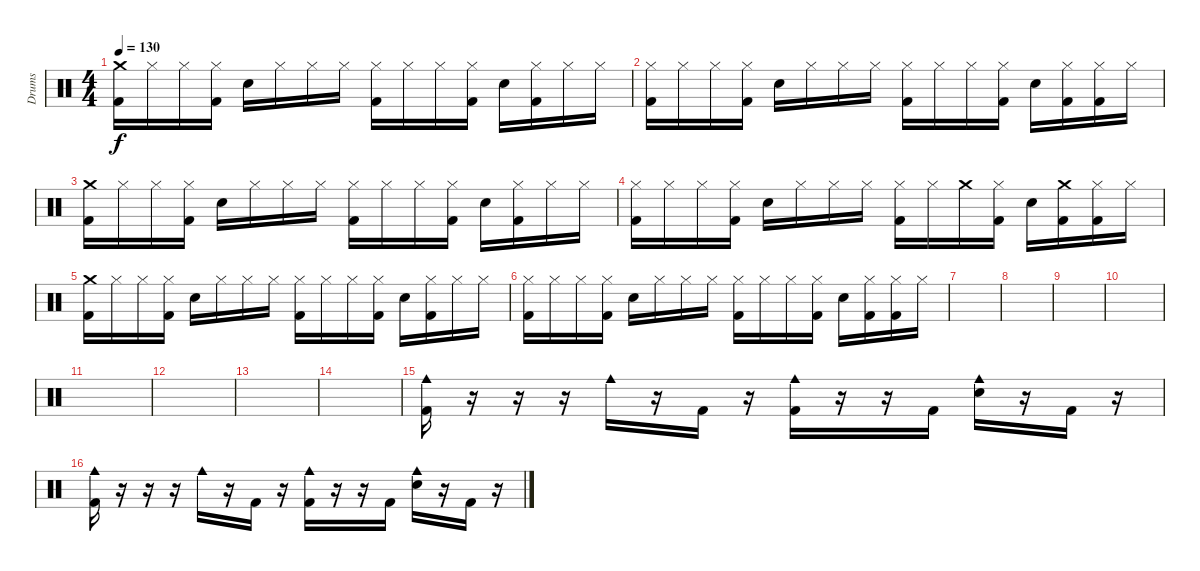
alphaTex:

\track ("Drums" "Drums") {instrument percussion}
\staff {score}
\articulation defaults
\ts (4 4)
\tempo 130
\clef neutral
\ks c
("Crash medium (hit)" "Kick (hit) 2").16{dy f} "Hi-Hat (closed)".16 "Hi-Hat (closed)".16 ("Hi-Hat (closed)" "Kick (hit) 2").16 "Snare (hit) 2".16 "Hi-Hat (closed)".16 "Hi-Hat (closed)".16 "Hi-Hat (closed)".16 ("Hi-Hat (closed)" "Kick (hit) 2").16 "Hi-Hat (closed)".16 "Hi-Hat (closed)".16 ("Hi-Hat (closed)" "Kick (hit) 2").16 "Snare (hit) 2".16 ("Hi-Hat (closed)" "Kick (hit) 2").16 "Hi-Hat (closed)".16 "Hi-Hat (closed)".16 |
("Hi-Hat (closed)" "Kick (hit) 2").16 "Hi-Hat (closed)".16 "Hi-Hat (closed)".16 ("Hi-Hat (closed)" "Kick (hit) 2").16 "Snare (hit) 2".16 "Hi-Hat (closed)".16 "Hi-Hat (closed)".16 "Hi-Hat (closed)".16 ("Hi-Hat (closed)" "Kick (hit) 2").16 "Hi-Hat (closed)".16 "Hi-Hat (closed)".16 ("Hi-Hat (closed)" "Kick (hit) 2").16 "Snare (hit) 2".16 ("Hi-Hat (closed)" "Kick (hit) 2").16 ("Hi-Hat (closed)" "Kick (hit) 2").16 "Hi-Hat (closed)".16 |
("Crash medium (hit)" "Kick (hit) 2").16 "Hi-Hat (closed)".16 "Hi-Hat (closed)".16 ("Hi-Hat (closed)" "Kick (hit) 2").16 "Snare (hit) 2".16 "Hi-Hat (closed)".16 "Hi-Hat (closed)".16 "Hi-Hat (closed)".16 ("Hi-Hat (closed)" "Kick (hit) 2").16 "Hi-Hat (closed)".16 "Hi-Hat (closed)".16 ("Hi-Hat (closed)" "Kick (hit) 2").16 "Snare (hit) 2".16 ("Hi-Hat (closed)" "Kick (hit) 2").16 "Hi-Hat (closed)".16 "Hi-Hat (closed)".16 |
("Hi-Hat (closed)" "Kick (hit) 2").16 "Hi-Hat (closed)".16 "Hi-Hat (closed)".16 ("Hi-Hat (closed)" "Kick (hit) 2").16 "Snare (hit) 2".16 "Hi-Hat (closed)".16 "Hi-Hat (closed)".16 "Hi-Hat (closed)".16 ("Hi-Hat (closed)" "Kick (hit) 2").16 "Hi-Hat (closed)".16 "Crash medium (hit)".16 ("Hi-Hat (closed)" "Kick (hit) 2").16 "Snare (hit) 2".16 ("Crash medium (hit)" "Kick (hit) 2").16 ("Hi-Hat (closed)" "Kick (hit) 2").16 "Hi-Hat (closed)".16 |
("Crash medium (hit)" "Kick (hit) 2").16 "Hi-Hat (closed)".16 "Hi-Hat (closed)".16 ("Hi-Hat (closed)" "Kick (hit) 2").16 "Snare (hit) 2".16 "Hi-Hat (closed)".16 "Hi-Hat (closed)".16 "Hi-Hat (closed)".16 ("Hi-Hat (closed)" "Kick (hit) 2").16 "Hi-Hat (closed)".16 "Hi-Hat (closed)".16 ("Hi-Hat (closed)" "Kick (hit) 2").16 "Snare (hit) 2".16 ("Hi-Hat (closed)" "Kick (hit) 2").16 "Hi-Hat (closed)".16 "Hi-Hat (closed)".16 |
("Hi-Hat (closed)" "Kick (hit) 2").16 "Hi-Hat (closed)".16 "Hi-Hat (closed)".16 ("Hi-Hat (closed)" "Kick (hit) 2").16 "Snare (hit) 2".16 "Hi-Hat (closed)".16 "Hi-Hat (closed)".16 "Hi-Hat (closed)".16 ("Hi-Hat (closed)" "Kick (hit) 2").16 "Hi-Hat (closed)".16 "Hi-Hat (closed)".16 ("Hi-Hat (closed)" "Kick (hit) 2").16 "Snare (hit) 2".16 ("Hi-Hat (closed)" "Kick (hit) 2").16 ("Hi-Hat (closed)" "Kick (hit) 2").16 "Hi-Hat (closed)".16 |
|
|
|
|
|
|
|
|
("Cowbell medium (hit)" "Kick (hit) 2").16 r.16 r.16 r.16 "Cowbell medium (hit)".16 r.16 "Kick (hit) 2".16 r.16 ("Cowbell medium (hit)" "Kick (hit) 2").16 r.16 r.16 "Kick (hit) 2".16 ("Cowbell medium (hit)" "Snare (hit) 2").16 r.16 "Kick (hit) 2".16 r.16 |
("Cowbell medium (hit)" "Kick (hit) 2").16 r.16 r.16 r.16 "Cowbell medium (hit)".16 r.16 "Kick (hit) 2".16 r.16 ("Cowbell medium (hit)" "Kick (hit) 2").16 r.16 r.16 "Kick (hit) 2".16 ("Cowbell medium (hit)" "Snare (hit) 2").16 r.16 "Kick (hit) 2".16 r.16
